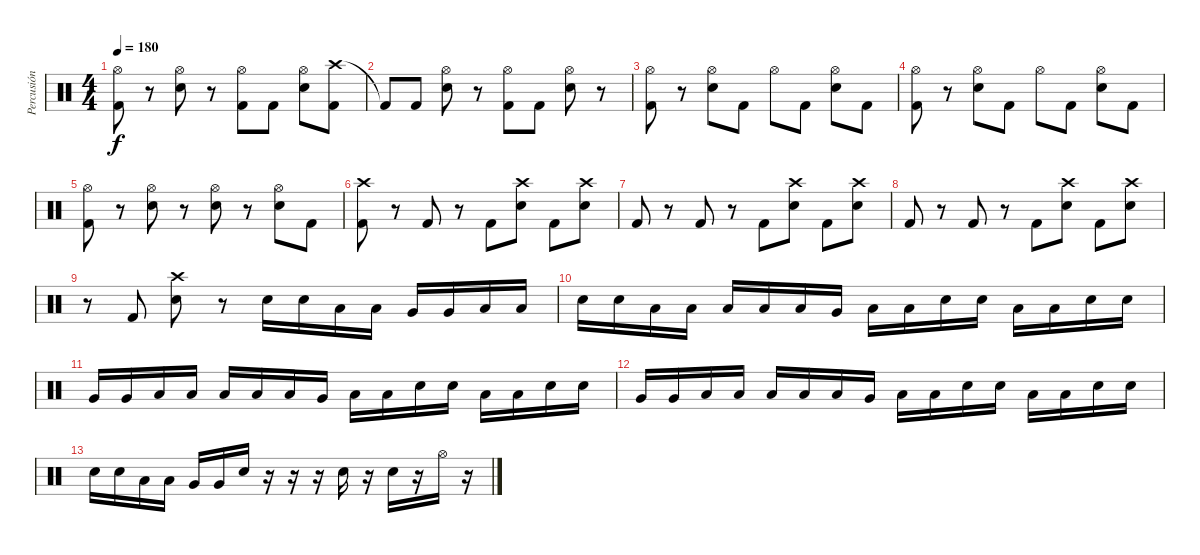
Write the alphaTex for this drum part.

\track ("Percusión" "Percusión") {instrument percussion}
\staff {score}
\articulation defaults
\ts (4 4)
\tempo 180
\clef neutral
\ks c
("Hi-Hat (open)" "Kick (hit) 2").8{dy f} r.8 ("Hi-Hat (open)" "Electric Snare (hit)").8 r.8 ("Hi-Hat (open)" "Kick (hit) 2").8 "Kick (hit) 2".8 ("Hi-Hat (open)" "Electric Snare (hit)").8 ("Crash high (hit)" "Kick (hit) 2").8 |
"Kick (hit) 2"{t}.8 "Kick (hit) 2".8 ("Hi-Hat (open)" "Electric Snare (hit)").8 r.8 ("Hi-Hat (open)" "Kick (hit) 2").8 "Kick (hit) 2".8 ("Hi-Hat (open)" "Electric Snare (hit)").8 r.8 |
("Hi-Hat (open)" "Kick (hit) 2").8 r.8 ("Hi-Hat (open)" "Electric Snare (hit)").8 "Kick (hit) 2".8 "Hi-Hat (open)".8 "Kick (hit) 2".8 ("Hi-Hat (open)" "Electric Snare (hit)").8 "Kick (hit) 2".8 |
("Hi-Hat (open)" "Kick (hit) 2").8 r.8 ("Hi-Hat (open)" "Electric Snare (hit)").8 "Kick (hit) 2".8 "Hi-Hat (open)".8 "Kick (hit) 2".8 ("Hi-Hat (open)" "Electric Snare (hit)").8 "Kick (hit) 2".8 |
("Hi-Hat (open)" "Kick (hit) 2").8 r.8 ("Hi-Hat (open)" "Electric Snare (hit)").8 r.8 ("Hi-Hat (open)" "Electric Snare (hit)").8 r.8 ("Hi-Hat (open)" "Electric Snare (hit)").8 "Kick (hit) 2".8 |
("Crash high (hit)" "Kick (hit) 2").8 r.8 "Kick (hit) 2".8 r.8 "Kick (hit) 2".8 ("Crash high (hit)" "Electric Snare (hit)").8 "Kick (hit) 2".8 ("Crash high (hit)" "Electric Snare (hit)").8 |
"Kick (hit) 2".8 r.8 "Kick (hit) 2".8 r.8 "Kick (hit) 2".8 ("Crash high (hit)" "Electric Snare (hit)").8 "Kick (hit) 2".8 ("Crash high (hit)" "Electric Snare (hit)").8 |
"Kick (hit) 2".8 r.8 "Kick (hit) 2".8 r.8 "Kick (hit) 2".8 ("Crash high (hit)" "Electric Snare (hit)").8 "Kick (hit) 2".8 ("Crash high (hit)" "Electric Snare (hit)").8 |
r.8 "Kick (hit) 2".8 ("Crash high (hit)" "Electric Snare (hit)").8 r.8 "Electric Snare (hit)".16 "Electric Snare (hit)".16 "Low Tom (hit)".16 "Low Tom (hit)".16 "Very Low Tom (hit)".16 "Very Low Tom (hit)".16 "Low Floor Tom (hit)".16 "Low Floor Tom (hit)".16 |
"Electric Snare (hit)".16 "Electric Snare (hit)".16 "Low Tom (hit)".16 "Low Tom (hit)".16 "Low Tom (hit)".16 "Low Tom (hit)".16 "Low Tom (hit)".16 "Very Low Tom (hit)".16 "Low Tom (hit)".16 "Low Tom (hit)".16 "Electric Snare (hit)".16 "Electric Snare (hit)".16 "Low Floor Tom (hit)".16 "Low Floor Tom (hit)".16 "Electric Snare (hit)".16 "Electric Snare (hit)".16 |
"Very Low Tom (hit)".16 "Very Low Tom (hit)".16 "Low Tom (hit)".16 "Low Tom (hit)".16 "Low Tom (hit)".16 "Low Tom (hit)".16 "Low Tom (hit)".16 "Very Low Tom (hit)".16 "Low Tom (hit)".16 "Low Tom (hit)".16 "Electric Snare (hit)".16 "Electric Snare (hit)".16 "Low Floor Tom (hit)".16 "Low Floor Tom (hit)".16 "Electric Snare (hit)".16 "Electric Snare (hit)".16 |
"Very Low Tom (hit)".16 "Very Low Tom (hit)".16 "Low Tom (hit)".16 "Low Tom (hit)".16 "Low Tom (hit)".16 "Low Tom (hit)".16 "Low Tom (hit)".16 "Very Low Tom (hit)".16 "Low Tom (hit)".16 "Low Tom (hit)".16 "Electric Snare (hit)".16 "Electric Snare (hit)".16 "Low Floor Tom (hit)".16 "Low Floor Tom (hit)".16 "Electric Snare (hit)".16 "Electric Snare (hit)".16 |
"Electric Snare (hit)".16 "Electric Snare (hit)".16 "Low Tom (hit)".16 "Low Tom (hit)".16 "Very Low Tom (hit)".16 "Very Low Tom (hit)".16 "Electric Snare (hit)".16 r.16 r.16 r.16 "Electric Snare (hit)".16 r.16 "Electric Snare (hit)".16 r.16 "Hi-Hat (open)".16 r.16
